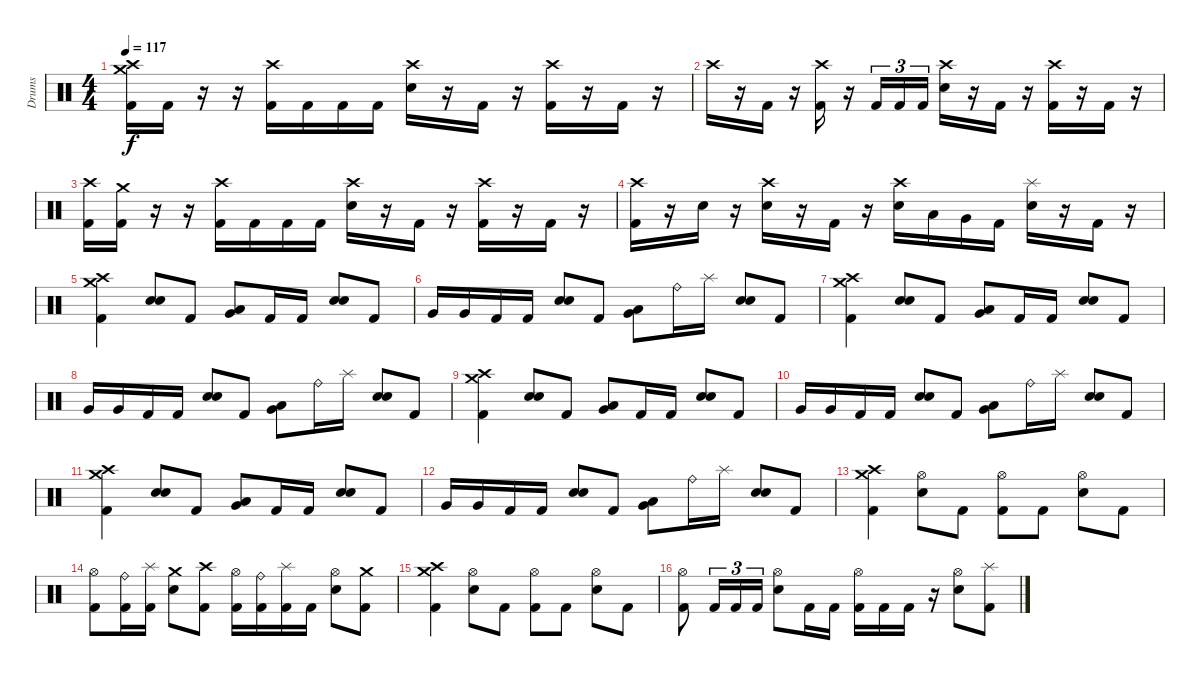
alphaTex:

\track ("Drums" "Drums") {instrument percussion}
\staff {score}
\articulation defaults
\ts (4 4)
\tempo 117
\clef neutral
\ks c
("Crash high (hit)" "Crash medium (hit)" "Kick (hit) 2").16{dy f} "Kick (hit) 2".16 r.16 r.16 ("Crash high (hit)" "Kick (hit) 2").16 "Kick (hit) 2".16 "Kick (hit) 2".16 "Kick (hit) 2".16 ("Crash high (hit)" "Snare (hit) 2").16 r.16 "Kick (hit) 2".16 r.16 ("Crash high (hit)" "Kick (hit) 2").16 r.16 "Kick (hit) 2".16 r.16 |
"Crash high (hit)".16 r.16 "Kick (hit) 2".16 r.16 ("Crash high (hit)" "Kick (hit) 2").16 r.16 "Kick (hit) 2".16{tu (3 2)} "Kick (hit) 2".16{tu (3 2)} "Kick (hit) 2".16{tu (3 2)} ("Crash high (hit)" "Snare (hit) 2").16 r.16 "Kick (hit) 2".16 r.16 ("Crash high (hit)" "Kick (hit) 2").16 r.16 "Kick (hit) 2".16 r.16 |
("Crash high (hit)" "Kick (hit) 2").16 ("Crash medium (hit)" "Kick (hit) 2").16 r.16 r.16 ("Crash high (hit)" "Kick (hit) 2").16 "Kick (hit) 2".16 "Kick (hit) 2".16 "Kick (hit) 2".16 ("Crash high (hit)" "Snare (hit) 2").16 r.16 "Kick (hit) 2".16 r.16 ("Crash high (hit)" "Kick (hit) 2").16 r.16 "Kick (hit) 2".16 r.16 |
("Crash high (hit)" "Kick (hit) 2").16 r.16 "Snare (hit) 2".16 r.16 ("Crash high (hit)" "Snare (hit) 2").16 r.16 "Kick (hit) 2".16 r.16 ("Crash high (hit)" "Snare (hit) 2").16 "Low Tom (hit)".16 "Very Low Tom (hit)".16 "Kick (hit) 2".16 ("Splash (hit)" "Snare (hit) 2").16 r.16 "Kick (hit) 2".16 r.16 |
("Crash medium (hit)" "Crash high (hit)" "Kick (hit) 2").4 ("Snare (hit) 2" "Snare (hit) 2").8 "Kick (hit) 2".8 ("Very Low Tom (hit)" "Low Floor Tom (hit)").8 "Kick (hit) 2".16 "Kick (hit) 2".16 ("Snare (hit) 2" "Snare (hit) 2").8 "Kick (hit) 2".8 |
"Very Low Tom (hit)".16 "Very Low Tom (hit)".16 "Kick (hit) 2".16 "Kick (hit) 2".16 ("Snare (hit) 2" "Snare (hit) 2").8 "Kick (hit) 2".8 ("Very Low Tom (hit)" "Low Floor Tom (hit)").8 "Ride (bell)".16 "Splash (hit)".16 ("Snare (hit) 2" "Snare (hit) 2").8 "Kick (hit) 2".8 |
("Crash medium (hit)" "Crash high (hit)" "Kick (hit) 2").4 ("Snare (hit) 2" "Snare (hit) 2").8 "Kick (hit) 2".8 ("Very Low Tom (hit)" "Low Floor Tom (hit)").8 "Kick (hit) 2".16 "Kick (hit) 2".16 ("Snare (hit) 2" "Snare (hit) 2").8 "Kick (hit) 2".8 |
"Very Low Tom (hit)".16 "Very Low Tom (hit)".16 "Kick (hit) 2".16 "Kick (hit) 2".16 ("Snare (hit) 2" "Snare (hit) 2").8 "Kick (hit) 2".8 ("Very Low Tom (hit)" "Low Floor Tom (hit)").8 "Ride (bell)".16 "Splash (hit)".16 ("Snare (hit) 2" "Snare (hit) 2").8 "Kick (hit) 2".8 |
("Crash medium (hit)" "Crash high (hit)" "Kick (hit) 2").4 ("Snare (hit) 2" "Snare (hit) 2").8 "Kick (hit) 2".8 ("Very Low Tom (hit)" "Low Floor Tom (hit)").8 "Kick (hit) 2".16 "Kick (hit) 2".16 ("Snare (hit) 2" "Snare (hit) 2").8 "Kick (hit) 2".8 |
"Very Low Tom (hit)".16 "Very Low Tom (hit)".16 "Kick (hit) 2".16 "Kick (hit) 2".16 ("Snare (hit) 2" "Snare (hit) 2").8 "Kick (hit) 2".8 ("Very Low Tom (hit)" "Low Floor Tom (hit)").8 "Ride (bell)".16 "Splash (hit)".16 ("Snare (hit) 2" "Snare (hit) 2").8 "Kick (hit) 2".8 |
("Crash medium (hit)" "Crash high (hit)" "Kick (hit) 2").4 ("Snare (hit) 2" "Snare (hit) 2").8 "Kick (hit) 2".8 ("Very Low Tom (hit)" "Low Floor Tom (hit)").8 "Kick (hit) 2".16 "Kick (hit) 2".16 ("Snare (hit) 2" "Snare (hit) 2").8 "Kick (hit) 2".8 |
"Very Low Tom (hit)".16 "Very Low Tom (hit)".16 "Kick (hit) 2".16 "Kick (hit) 2".16 ("Snare (hit) 2" "Snare (hit) 2").8 "Kick (hit) 2".8 ("Very Low Tom (hit)" "Low Floor Tom (hit)").8 "Ride (bell)".16 "Splash (hit)".16 ("Snare (hit) 2" "Snare (hit) 2").8 "Kick (hit) 2".8 |
("Crash high (hit)" "Crash medium (hit)" "Kick (hit) 2").4 ("Hi-Hat (open)" "Snare (hit) 2").8 "Kick (hit) 2".8 ("Hi-Hat (open)" "Kick (hit) 2").8 "Kick (hit) 2".8 ("Hi-Hat (open)" "Snare (hit) 2").8 "Kick (hit) 2".8 |
("Hi-Hat (open)" "Kick (hit) 2").8 ("Ride (bell)" "Kick (hit) 2").16 ("Splash (hit)" "Kick (hit) 2").16 ("Crash medium (hit)" "Snare (hit) 2").8 ("Crash high (hit)" "Kick (hit) 2").8 ("Hi-Hat (open)" "Kick (hit) 2").16 ("Ride (bell)" "Kick (hit) 2").16 ("Splash (hit)" "Kick (hit) 2").16 "Kick (hit) 2".16 ("Hi-Hat (open)" "Snare (hit) 2").8 ("Crash medium (hit)" "Kick (hit) 2").8 |
("Crash high (hit)" "Crash medium (hit)" "Kick (hit) 2").4 ("Hi-Hat (open)" "Snare (hit) 2").8 "Kick (hit) 2".8 ("Hi-Hat (open)" "Kick (hit) 2").8 "Kick (hit) 2".8 ("Hi-Hat (open)" "Snare (hit) 2").8 "Kick (hit) 2".8 |
("Hi-Hat (open)" "Kick (hit) 2").8 "Kick (hit) 2".16{tu (3 2)} "Kick (hit) 2".16{tu (3 2)} "Kick (hit) 2".16{tu (3 2)} ("Hi-Hat (open)" "Snare (hit) 2").8 "Kick (hit) 2".16 "Kick (hit) 2".16 ("Hi-Hat (open)" "Kick (hit) 2").16 "Kick (hit) 2".16 "Kick (hit) 2".16 r.16 ("Hi-Hat (open)" "Snare (hit) 2").8 ("Splash (hit)" "Kick (hit) 2").8
